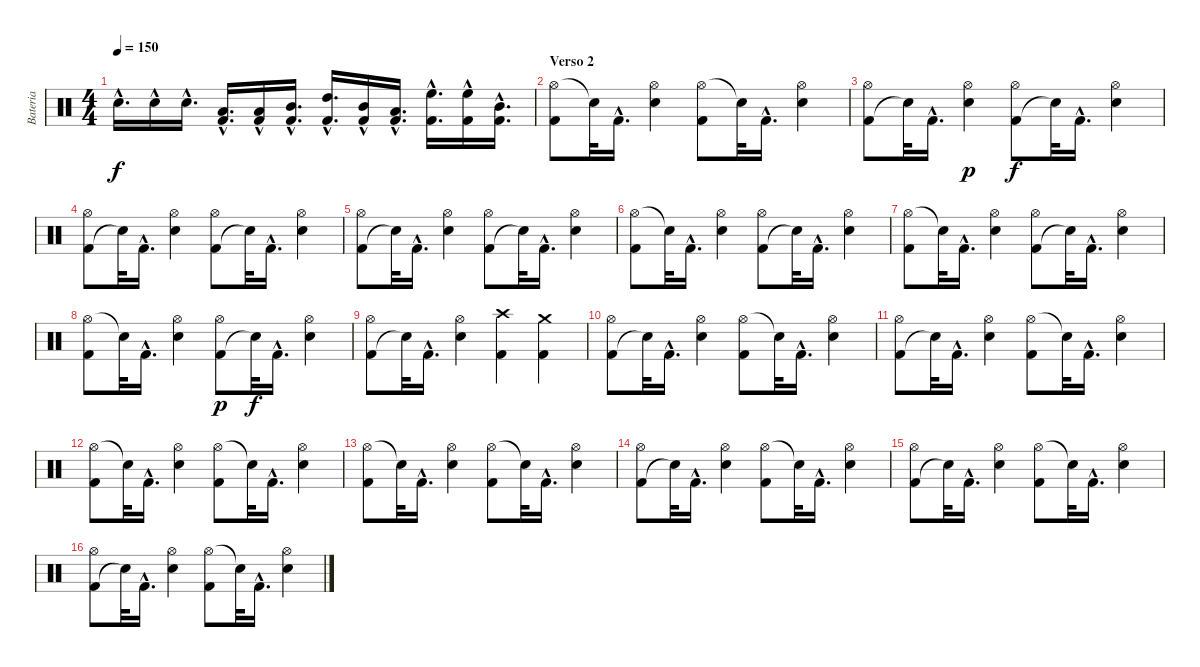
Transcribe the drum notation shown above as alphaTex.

\track ("Bateria" "Bateria") {instrument percussion}
\staff {score}
\articulation defaults
\ts (4 4)
\tempo 150
\clef neutral
\ks c "Snare (hit) 2"{hac}.16{d dy f} "Snare (hit) 2"{hac}.16 "Snare (hit) 2"{hac}.16{d}
("Low Tom (hit)"{hac} "Kick (hit) 2"{hac}).16{d} ("Low Tom (hit)"{hac} "Kick (hit) 2"{hac}).16 ("Kick (hit) 2"{hac} "Mid Tom (hit)"{hac}).16{d} ("Kick (hit) 2"{hac} "High Tom (hit)"{hac}).16{d} ("Kick (hit) 2"{hac} "Mid Tom (hit)"{hac}).16 ("Low Tom (hit)"{hac} "Kick (hit) 2"{hac}).16{d} ("High Floor Tom (hit)"{hac} "Kick (hit) 2"{hac}).16{d} ("Kick (hit) 2"{hac} "High Floor Tom (hit)"{hac}).16 ("Kick (hit) 2"{hac} "Mid Tom (hit)"{hac}).16{d} |
\section ("" "Verso 2")
("Hi-Hat (open)" "Kick (hit) 2").8 "Snare (hit)"{t}.32 "Kick (hit) 2"{hac}.16{d} ("Hi-Hat (open)" "Snare (hit) 2").4 ("Hi-Hat (open)" "Kick (hit) 2").8 "Snare (hit)"{t}.32 "Kick (hit) 2"{hac}.16{d} ("Hi-Hat (open)" "Snare (hit) 2").4 |
("Kick (hit) 2" "Hi-Hat (open)").8 "Snare (hit)"{t}.32 "Kick (hit) 2"{hac}.16{d} ("Snare (hit) 2" "Hi-Hat (open)").4{dy p} ("Kick (hit) 2" "Hi-Hat (open)").8{dy f} "Snare (hit)"{t}.32 "Kick (hit) 2"{hac}.16{d} ("Snare (hit) 2" "Hi-Hat (open)").4 |
("Kick (hit) 2" "Hi-Hat (open)").8 "Snare (hit)"{t}.32 "Kick (hit) 2"{hac}.16{d} ("Snare (hit) 2" "Hi-Hat (open)").4 ("Kick (hit) 2" "Hi-Hat (open)").8 "Snare (hit)"{t}.32 "Kick (hit) 2"{hac}.16{d} ("Hi-Hat (open)" "Snare (hit) 2").4 |
("Kick (hit) 2" "Hi-Hat (open)").8 "Snare (hit)"{t}.32 "Kick (hit) 2"{hac}.16{d} ("Hi-Hat (open)" "Snare (hit) 2").4 ("Kick (hit) 2" "Hi-Hat (open)").8 "Snare (hit)"{t}.32 "Kick (hit) 2"{hac}.16{d} ("Hi-Hat (open)" "Snare (hit) 2").4 |
("Hi-Hat (open)" "Kick (hit) 2").8 "Snare (hit)"{t}.32 "Kick (hit) 2"{hac}.16{d} ("Hi-Hat (open)" "Snare (hit) 2").4 ("Kick (hit) 2" "Hi-Hat (open)").8 "Snare (hit)"{t}.32 "Kick (hit) 2"{hac}.16{d} ("Hi-Hat (open)" "Snare (hit) 2").4 |
("Hi-Hat (open)" "Kick (hit) 2").8 "Snare (hit)"{t}.32 "Kick (hit) 2"{hac}.16{d} ("Hi-Hat (open)" "Snare (hit) 2").4 ("Kick (hit) 2" "Hi-Hat (open)").8 "Snare (hit)"{t}.32 "Kick (hit) 2"{hac}.16{d} ("Hi-Hat (open)" "Snare (hit) 2").4 |
("Hi-Hat (open)" "Kick (hit) 2").8 "Snare (hit)"{t}.32 "Kick (hit) 2"{hac}.16{d} ("Hi-Hat (open)" "Snare (hit) 2").4 ("Kick (hit) 2" "Hi-Hat (open)").8{dy p} "Snare (hit)"{t}.32{dy f} "Kick (hit) 2"{hac}.16{d} ("Hi-Hat (open)" "Snare (hit) 2").4 |
("Kick (hit) 2" "Hi-Hat (open)").8 "Snare (hit)"{t}.32 "Kick (hit) 2"{hac}.16{d} ("Snare (hit) 2" "Hi-Hat (open)").4 ("Crash high (hit)" "Kick (hit) 2").4 ("Crash medium (hit)" "Kick (hit) 2").4 |
("Kick (hit) 2" "Hi-Hat (open)").8 "Snare (hit)"{t}.32 "Kick (hit) 2"{hac}.16{d} ("Snare (hit) 2" "Hi-Hat (open)").4 ("Hi-Hat (open)" "Kick (hit) 2").8 "Snare (hit)"{t}.32 "Kick (hit) 2"{hac}.16{d} ("Snare (hit) 2" "Hi-Hat (open)").4 |
("Kick (hit) 2" "Hi-Hat (open)").8 "Snare (hit)"{t}.32 "Kick (hit) 2"{hac}.16{d} ("Hi-Hat (open)" "Snare (hit) 2").4 ("Hi-Hat (open)" "Kick (hit) 2").8 "Snare (hit)"{t}.32 "Kick (hit) 2"{hac}.16{d} ("Hi-Hat (open)" "Snare (hit) 2").4 |
("Hi-Hat (open)" "Kick (hit) 2").8 "Snare (hit)"{t}.32 "Kick (hit) 2"{hac}.16{d} ("Hi-Hat (open)" "Snare (hit) 2").4 ("Hi-Hat (open)" "Kick (hit) 2").8 "Snare (hit)"{t}.32 "Kick (hit) 2"{hac}.16{d} ("Hi-Hat (open)" "Snare (hit) 2").4 |
("Hi-Hat (open)" "Kick (hit) 2").8 "Snare (hit)"{t}.32 "Kick (hit) 2"{hac}.16{d} ("Hi-Hat (open)" "Snare (hit) 2").4 ("Hi-Hat (open)" "Kick (hit) 2").8 "Snare (hit)"{t}.32 "Kick (hit) 2"{hac}.16{d} ("Hi-Hat (open)" "Snare (hit) 2").4 |
("Kick (hit) 2" "Hi-Hat (open)").8 "Snare (hit)"{t}.32 "Kick (hit) 2"{hac}.16{d} ("Hi-Hat (open)" "Snare (hit) 2").4 ("Hi-Hat (open)" "Kick (hit) 2").8 "Snare (hit)"{t}.32 "Kick (hit) 2"{hac}.16{d} ("Hi-Hat (open)" "Snare (hit) 2").4 |
("Kick (hit) 2" "Hi-Hat (open)").8 "Snare (hit)"{t}.32 "Kick (hit) 2"{hac}.16{d} ("Hi-Hat (open)" "Snare (hit) 2").4 ("Hi-Hat (open)" "Kick (hit) 2").8 "Snare (hit)"{t}.32 "Kick (hit) 2"{hac}.16{d} ("Hi-Hat (open)" "Snare (hit) 2").4 |
("Kick (hit) 2" "Hi-Hat (open)").8 "Snare (hit)"{t}.32 "Kick (hit) 2"{hac}.16{d} ("Hi-Hat (open)" "Snare (hit) 2").4 ("Hi-Hat (open)" "Kick (hit) 2").8 "Snare (hit)"{t}.32 "Kick (hit) 2"{hac}.16{d} ("Hi-Hat (open)" "Snare (hit) 2").4
